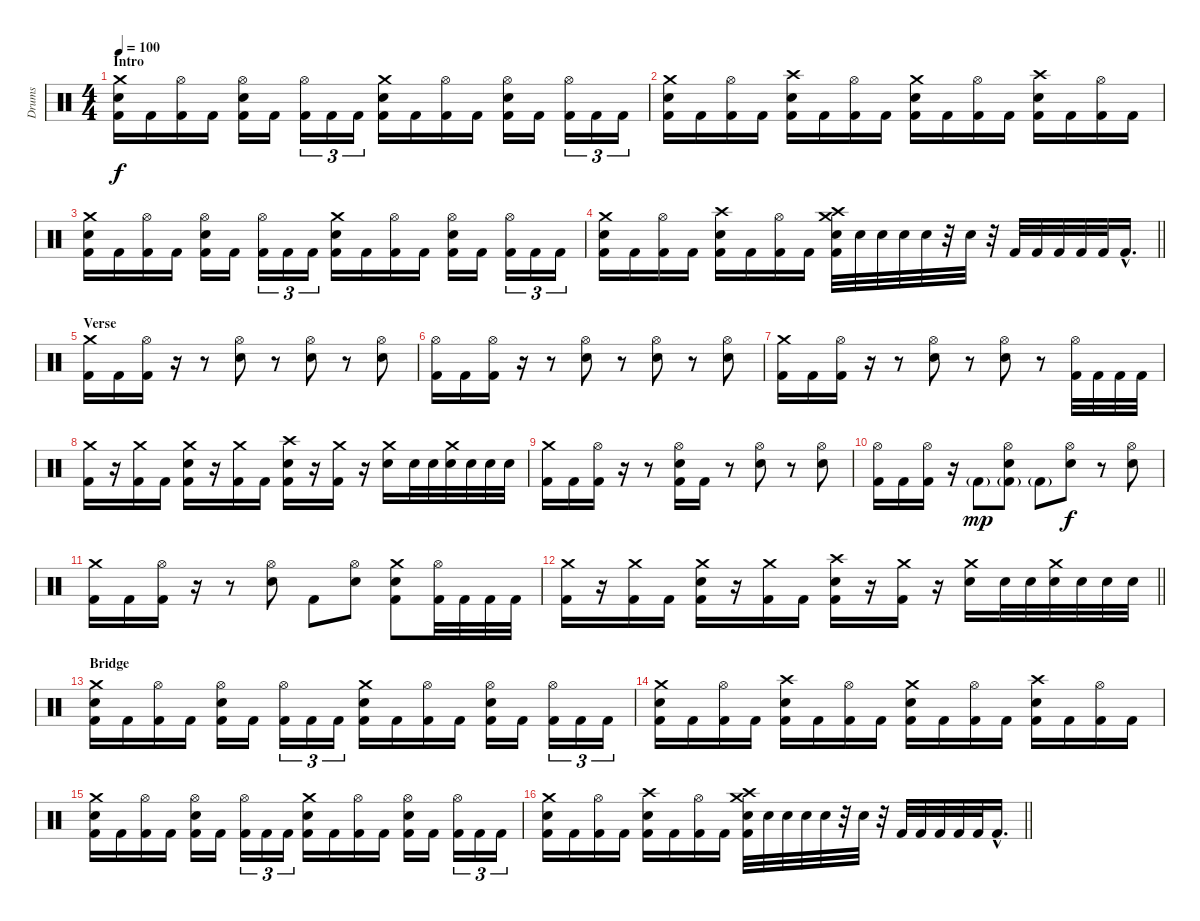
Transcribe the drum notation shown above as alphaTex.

\track ("Drums" "Drums") {instrument percussion}
\staff {score}
\articulation defaults
\ts (4 4)
\section ("" "Intro")
\tempo 100
\clef neutral
\ks c
("Crash medium (hit)" "Electric Snare (hit)" "Kick (hit) 2").16{dy f} "Kick (hit) 2".16 ("Hi-Hat (open)" "Kick (hit) 2").16 "Kick (hit) 2".16 ("Hi-Hat (open)" "Electric Snare (hit)" "Kick (hit) 2").16 "Kick (hit) 2".16 ("Hi-Hat (open)" "Kick (hit) 2").16{tu (3 2)} "Kick (hit) 2".16{tu (3 2)} "Kick (hit) 2".16{tu (3 2)} ("Crash medium (hit)" "Electric Snare (hit)" "Kick (hit) 2").16 "Kick (hit) 2".16 ("Hi-Hat (open)" "Kick (hit) 2").16 "Kick (hit) 2".16 ("Hi-Hat (open)" "Electric Snare (hit)" "Kick (hit) 2").16 "Kick (hit) 2".16 ("Hi-Hat (open)" "Kick (hit) 2").16{tu (3 2)} "Kick (hit) 2".16{tu (3 2)} "Kick (hit) 2".16{tu (3 2)} |
("Crash medium (hit)" "Electric Snare (hit)" "Kick (hit) 2").16 "Kick (hit) 2".16 ("Hi-Hat (open)" "Kick (hit) 2").16 "Kick (hit) 2".16 ("Crash high (hit)" "Electric Snare (hit)" "Kick (hit) 2").16 "Kick (hit) 2".16 ("Hi-Hat (open)" "Kick (hit) 2").16 "Kick (hit) 2".16 ("Crash medium (hit)" "Electric Snare (hit)" "Kick (hit) 2").16 "Kick (hit) 2".16 ("Hi-Hat (open)" "Kick (hit) 2").16 "Kick (hit) 2".16 ("Crash high (hit)" "Electric Snare (hit)" "Kick (hit) 2").16 "Kick (hit) 2".16 ("Hi-Hat (open)" "Kick (hit) 2").16 "Kick (hit) 2".16 |
("Crash medium (hit)" "Electric Snare (hit)" "Kick (hit) 2").16 "Kick (hit) 2".16 ("Hi-Hat (open)" "Kick (hit) 2").16 "Kick (hit) 2".16 ("Hi-Hat (open)" "Electric Snare (hit)" "Kick (hit) 2").16 "Kick (hit) 2".16 ("Hi-Hat (open)" "Kick (hit) 2").16{tu (3 2)} "Kick (hit) 2".16{tu (3 2)} "Kick (hit) 2".16{tu (3 2)} ("Crash medium (hit)" "Electric Snare (hit)" "Kick (hit) 2").16 "Kick (hit) 2".16 ("Hi-Hat (open)" "Kick (hit) 2").16 "Kick (hit) 2".16 ("Hi-Hat (open)" "Electric Snare (hit)" "Kick (hit) 2").16 "Kick (hit) 2".16 ("Hi-Hat (open)" "Kick (hit) 2").16{tu (3 2)} "Kick (hit) 2".16{tu (3 2)} "Kick (hit) 2".16{tu (3 2)} |
\barLineRight lightlight
("Crash medium (hit)" "Electric Snare (hit)" "Kick (hit) 2").16 "Kick (hit) 2".16 ("Hi-Hat (open)" "Kick (hit) 2").16 "Kick (hit) 2".16 ("Crash high (hit)" "Electric Snare (hit)" "Kick (hit) 2").16 "Kick (hit) 2".16 ("Hi-Hat (open)" "Kick (hit) 2").16 "Kick (hit) 2".16 ("Crash medium (hit)" "Crash high (hit)" "Electric Snare (hit)" "Kick (hit) 2").32 "Electric Snare (hit)".32 "Electric Snare (hit)".32 "Electric Snare (hit)".32 "Electric Snare (hit)".32 r.32 "Electric Snare (hit)".32 r.32 "Kick (hit) 2".32 "Kick (hit) 2".32 "Kick (hit) 2".32 "Kick (hit) 2".32 "Kick (hit) 2".32 "Kick (hit) 2"{hac}.16{d} |
\section ("" "Verse")
("Crash medium (hit)" "Kick (hit) 2").16 "Kick (hit) 2".16 ("Hi-Hat (open)" "Kick (hit) 2").16 r.16 r.8 ("Hi-Hat (open)" "Electric Snare (hit)").8 r.8 ("Hi-Hat (open)" "Electric Snare (hit)").8 r.8 ("Hi-Hat (open)" "Electric Snare (hit)").8 |
("Hi-Hat (open)" "Kick (hit) 2").16 "Kick (hit) 2".16 ("Hi-Hat (open)" "Kick (hit) 2").16 r.16 r.8 ("Hi-Hat (open)" "Electric Snare (hit)").8 r.8 ("Hi-Hat (open)" "Electric Snare (hit)").8 r.8 ("Hi-Hat (open)" "Electric Snare (hit)").8 |
("Crash medium (hit)" "Kick (hit) 2").16 "Kick (hit) 2".16 ("Hi-Hat (open)" "Kick (hit) 2").16 r.16 r.8 ("Hi-Hat (open)" "Electric Snare (hit)").8 r.8 ("Hi-Hat (open)" "Electric Snare (hit)").8 r.8 ("Hi-Hat (open)" "Kick (hit) 2").32 "Kick (hit) 2".32 "Kick (hit) 2".32 "Kick (hit) 2".32 |
("Crash medium (hit)" "Kick (hit) 2").16 r.16 ("Crash medium (hit)" "Kick (hit) 2").16 "Kick (hit) 2".16 ("Crash medium (hit)" "Electric Snare (hit)" "Kick (hit) 2").16 r.16 ("Crash medium (hit)" "Kick (hit) 2").16 "Kick (hit) 2".16 ("Crash high (hit)" "Electric Snare (hit)" "Kick (hit) 2").16 r.16 ("Crash medium (hit)" "Kick (hit) 2").16 r.16 ("Crash medium (hit)" "Electric Snare (hit)").16 "Electric Snare (hit)".32 "Electric Snare (hit)".32 ("Crash medium (hit)" "Electric Snare (hit)").32 "Electric Snare (hit)".32 "Electric Snare (hit)".32 "Electric Snare (hit)".32 |
("Crash medium (hit)" "Kick (hit) 2").16 "Kick (hit) 2".16 ("Hi-Hat (open)" "Kick (hit) 2").16 r.16 r.8 ("Hi-Hat (open)" "Electric Snare (hit)" "Kick (hit) 2").16 "Kick (hit) 2".16 r.8 ("Hi-Hat (open)" "Electric Snare (hit)").8 r.8 ("Hi-Hat (open)" "Electric Snare (hit)").8 |
("Hi-Hat (open)" "Kick (hit) 2").16 "Kick (hit) 2".16 ("Hi-Hat (open)" "Kick (hit) 2").16 r.16 "Kick (hit) 2"{g}.8{dy mp} ("Hi-Hat (open)" "Electric Snare (hit)" "Kick (hit) 2"{g}).8 "Kick (hit) 2"{g}.8 ("Hi-Hat (open)" "Electric Snare (hit)").8{dy f} r.8 ("Hi-Hat (open)" "Electric Snare (hit)").8 |
("Crash medium (hit)" "Kick (hit) 2").16 "Kick (hit) 2".16 ("Hi-Hat (open)" "Kick (hit) 2").16 r.16 r.8 ("Hi-Hat (open)" "Electric Snare (hit)").8 "Kick (hit) 2".8 ("Hi-Hat (open)" "Electric Snare (hit)").8 ("Crash medium (hit)" "Electric Snare (hit)" "Kick (hit) 2").8 ("Hi-Hat (open)" "Kick (hit) 2").32 "Kick (hit) 2".32 "Kick (hit) 2".32 "Kick (hit) 2".32 |
\barLineRight lightlight
("Crash medium (hit)" "Kick (hit) 2").16 r.16 ("Crash medium (hit)" "Kick (hit) 2").16 "Kick (hit) 2".16 ("Crash medium (hit)" "Electric Snare (hit)" "Kick (hit) 2").16 r.16 ("Crash medium (hit)" "Kick (hit) 2").16 "Kick (hit) 2".16 ("Crash high (hit)" "Electric Snare (hit)" "Kick (hit) 2").16 r.16 ("Crash medium (hit)" "Kick (hit) 2").16 r.16 ("Crash medium (hit)" "Electric Snare (hit)").16 "Electric Snare (hit)".32 "Electric Snare (hit)".32 ("Crash medium (hit)" "Electric Snare (hit)").32 "Electric Snare (hit)".32 "Electric Snare (hit)".32 "Electric Snare (hit)".32 |
\section ("" "Bridge")
("Crash medium (hit)" "Electric Snare (hit)" "Kick (hit) 2").16 "Kick (hit) 2".16 ("Hi-Hat (open)" "Kick (hit) 2").16 "Kick (hit) 2".16 ("Hi-Hat (open)" "Electric Snare (hit)" "Kick (hit) 2").16 "Kick (hit) 2".16 ("Hi-Hat (open)" "Kick (hit) 2").16{tu (3 2)} "Kick (hit) 2".16{tu (3 2)} "Kick (hit) 2".16{tu (3 2)} ("Crash medium (hit)" "Electric Snare (hit)" "Kick (hit) 2").16 "Kick (hit) 2".16 ("Hi-Hat (open)" "Kick (hit) 2").16 "Kick (hit) 2".16 ("Hi-Hat (open)" "Electric Snare (hit)" "Kick (hit) 2").16 "Kick (hit) 2".16 ("Hi-Hat (open)" "Kick (hit) 2").16{tu (3 2)} "Kick (hit) 2".16{tu (3 2)} "Kick (hit) 2".16{tu (3 2)} |
("Crash medium (hit)" "Electric Snare (hit)" "Kick (hit) 2").16 "Kick (hit) 2".16 ("Hi-Hat (open)" "Kick (hit) 2").16 "Kick (hit) 2".16 ("Crash high (hit)" "Electric Snare (hit)" "Kick (hit) 2").16 "Kick (hit) 2".16 ("Hi-Hat (open)" "Kick (hit) 2").16 "Kick (hit) 2".16 ("Crash medium (hit)" "Electric Snare (hit)" "Kick (hit) 2").16 "Kick (hit) 2".16 ("Hi-Hat (open)" "Kick (hit) 2").16 "Kick (hit) 2".16 ("Crash high (hit)" "Electric Snare (hit)" "Kick (hit) 2").16 "Kick (hit) 2".16 ("Hi-Hat (open)" "Kick (hit) 2").16 "Kick (hit) 2".16 |
("Crash medium (hit)" "Electric Snare (hit)" "Kick (hit) 2").16 "Kick (hit) 2".16 ("Hi-Hat (open)" "Kick (hit) 2").16 "Kick (hit) 2".16 ("Hi-Hat (open)" "Electric Snare (hit)" "Kick (hit) 2").16 "Kick (hit) 2".16 ("Hi-Hat (open)" "Kick (hit) 2").16{tu (3 2)} "Kick (hit) 2".16{tu (3 2)} "Kick (hit) 2".16{tu (3 2)} ("Crash medium (hit)" "Electric Snare (hit)" "Kick (hit) 2").16 "Kick (hit) 2".16 ("Hi-Hat (open)" "Kick (hit) 2").16 "Kick (hit) 2".16 ("Hi-Hat (open)" "Electric Snare (hit)" "Kick (hit) 2").16 "Kick (hit) 2".16 ("Hi-Hat (open)" "Kick (hit) 2").16{tu (3 2)} "Kick (hit) 2".16{tu (3 2)} "Kick (hit) 2".16{tu (3 2)} |
\barLineRight lightlight
("Crash medium (hit)" "Electric Snare (hit)" "Kick (hit) 2").16 "Kick (hit) 2".16 ("Hi-Hat (open)" "Kick (hit) 2").16 "Kick (hit) 2".16 ("Crash high (hit)" "Electric Snare (hit)" "Kick (hit) 2").16 "Kick (hit) 2".16 ("Hi-Hat (open)" "Kick (hit) 2").16 "Kick (hit) 2".16 ("Crash medium (hit)" "Crash high (hit)" "Electric Snare (hit)" "Kick (hit) 2").32 "Electric Snare (hit)".32 "Electric Snare (hit)".32 "Electric Snare (hit)".32 "Electric Snare (hit)".32 r.32 "Electric Snare (hit)".32 r.32 "Kick (hit) 2".32 "Kick (hit) 2".32 "Kick (hit) 2".32 "Kick (hit) 2".32 "Kick (hit) 2".32 "Kick (hit) 2"{hac}.16{d}
